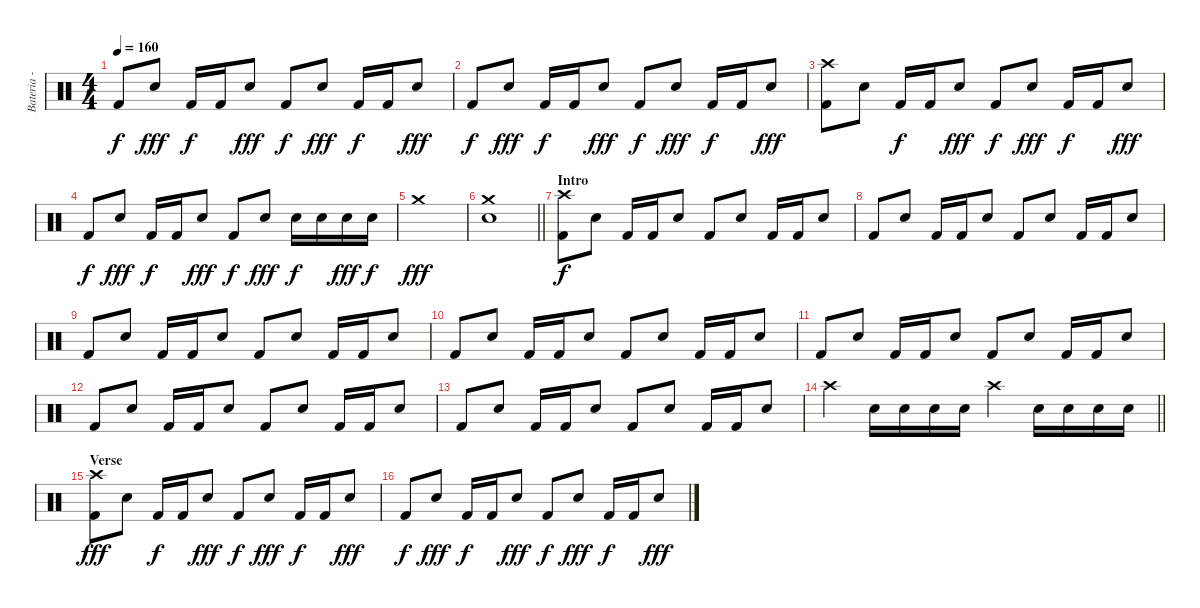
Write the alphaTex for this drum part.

\track ("Bateria - Larzon" "Bateria - ") {instrument percussion}
\staff {score}
\articulation defaults
\ts (4 4)
\tempo 160
\clef neutral
\ks c "Kick (hit) 2".8{dy f} "Snare (hit) 2".8{dy fff} "Kick (hit) 2".16{dy f} "Kick (hit) 2".16 "Snare (hit) 2".8{dy fff} "Kick (hit) 2".8{dy f} "Snare (hit) 2".8{dy fff} "Kick (hit) 2".16{dy f} "Kick (hit) 2".16 "Snare (hit) 2".8{dy fff}
|
"Kick (hit) 2".8{dy f} "Snare (hit) 2".8{dy fff} "Kick (hit) 2".16{dy f} "Kick (hit) 2".16 "Snare (hit) 2".8{dy fff} "Kick (hit) 2".8{dy f} "Snare (hit) 2".8{dy fff} "Kick (hit) 2".16{dy f} "Kick (hit) 2".16 "Snare (hit) 2".8{dy fff} |
("Kick (hit) 2" "Crash high (hit)").8 "Snare (hit) 2".8 "Kick (hit) 2".16{dy f} "Kick (hit) 2".16 "Snare (hit) 2".8{dy fff} "Kick (hit) 2".8{dy f} "Snare (hit) 2".8{dy fff} "Kick (hit) 2".16{dy f} "Kick (hit) 2".16 "Snare (hit) 2".8{dy fff} |
"Kick (hit) 2".8{dy f} "Snare (hit) 2".8{dy fff} "Kick (hit) 2".16{dy f} "Kick (hit) 2".16 "Snare (hit) 2".8{dy fff} "Kick (hit) 2".8{dy f} "Snare (hit) 2".8{dy fff} "Snare (hit) 2".16{dy f} "Snare (hit) 2".16 "Snare (hit) 2".16{dy fff} "Snare (hit) 2".16{dy f} |
"Crash medium (hit)".1{dy fff} |
\barLineRight lightlight
("Crash medium (hit)" "Snare (hit) 2").1 |
\section ("" "Intro")
("Kick (hit) 2" "Crash high (hit)").8{dy f} "Snare (hit) 2".8 "Kick (hit) 2".16 "Kick (hit) 2".16 "Snare (hit) 2".8 "Kick (hit) 2".8 "Snare (hit) 2".8 "Kick (hit) 2".16 "Kick (hit) 2".16 "Snare (hit) 2".8 |
"Kick (hit) 2".8 "Snare (hit) 2".8 "Kick (hit) 2".16 "Kick (hit) 2".16 "Snare (hit) 2".8 "Kick (hit) 2".8 "Snare (hit) 2".8 "Kick (hit) 2".16 "Kick (hit) 2".16 "Snare (hit) 2".8 |
"Kick (hit) 2".8 "Snare (hit) 2".8 "Kick (hit) 2".16 "Kick (hit) 2".16 "Snare (hit) 2".8 "Kick (hit) 2".8 "Snare (hit) 2".8 "Kick (hit) 2".16 "Kick (hit) 2".16 "Snare (hit) 2".8 |
"Kick (hit) 2".8 "Snare (hit) 2".8 "Kick (hit) 2".16 "Kick (hit) 2".16 "Snare (hit) 2".8 "Kick (hit) 2".8 "Snare (hit) 2".8 "Kick (hit) 2".16 "Kick (hit) 2".16 "Snare (hit) 2".8 |
"Kick (hit) 2".8 "Snare (hit) 2".8 "Kick (hit) 2".16 "Kick (hit) 2".16 "Snare (hit) 2".8 "Kick (hit) 2".8 "Snare (hit) 2".8 "Kick (hit) 2".16 "Kick (hit) 2".16 "Snare (hit) 2".8 |
"Kick (hit) 2".8 "Snare (hit) 2".8 "Kick (hit) 2".16 "Kick (hit) 2".16 "Snare (hit) 2".8 "Kick (hit) 2".8 "Snare (hit) 2".8 "Kick (hit) 2".16 "Kick (hit) 2".16 "Snare (hit) 2".8 |
"Kick (hit) 2".8 "Snare (hit) 2".8 "Kick (hit) 2".16 "Kick (hit) 2".16 "Snare (hit) 2".8 "Kick (hit) 2".8 "Snare (hit) 2".8 "Kick (hit) 2".16 "Kick (hit) 2".16 "Snare (hit) 2".8 |
\barLineRight lightlight "Crash high (hit)".4 "Snare (hit) 2".16 "Snare (hit) 2".16 "Snare (hit) 2".16 "Snare (hit) 2".16 "Crash high (hit)".4 "Snare (hit) 2".16 "Snare (hit) 2".16 "Snare (hit) 2".16 "Snare (hit) 2".16
|
\section ("" "Verse")
("Kick (hit) 2" "Crash high (hit)").8{dy fff} "Snare (hit) 2".8 "Kick (hit) 2".16{dy f} "Kick (hit) 2".16 "Snare (hit) 2".8{dy fff} "Kick (hit) 2".8{dy f} "Snare (hit) 2".8{dy fff} "Kick (hit) 2".16{dy f} "Kick (hit) 2".16 "Snare (hit) 2".8{dy fff} |
"Kick (hit) 2".8{dy f} "Snare (hit) 2".8{dy fff} "Kick (hit) 2".16{dy f} "Kick (hit) 2".16 "Snare (hit) 2".8{dy fff} "Kick (hit) 2".8{dy f} "Snare (hit) 2".8{dy fff} "Kick (hit) 2".16{dy f} "Kick (hit) 2".16 "Snare (hit) 2".8{dy fff}
